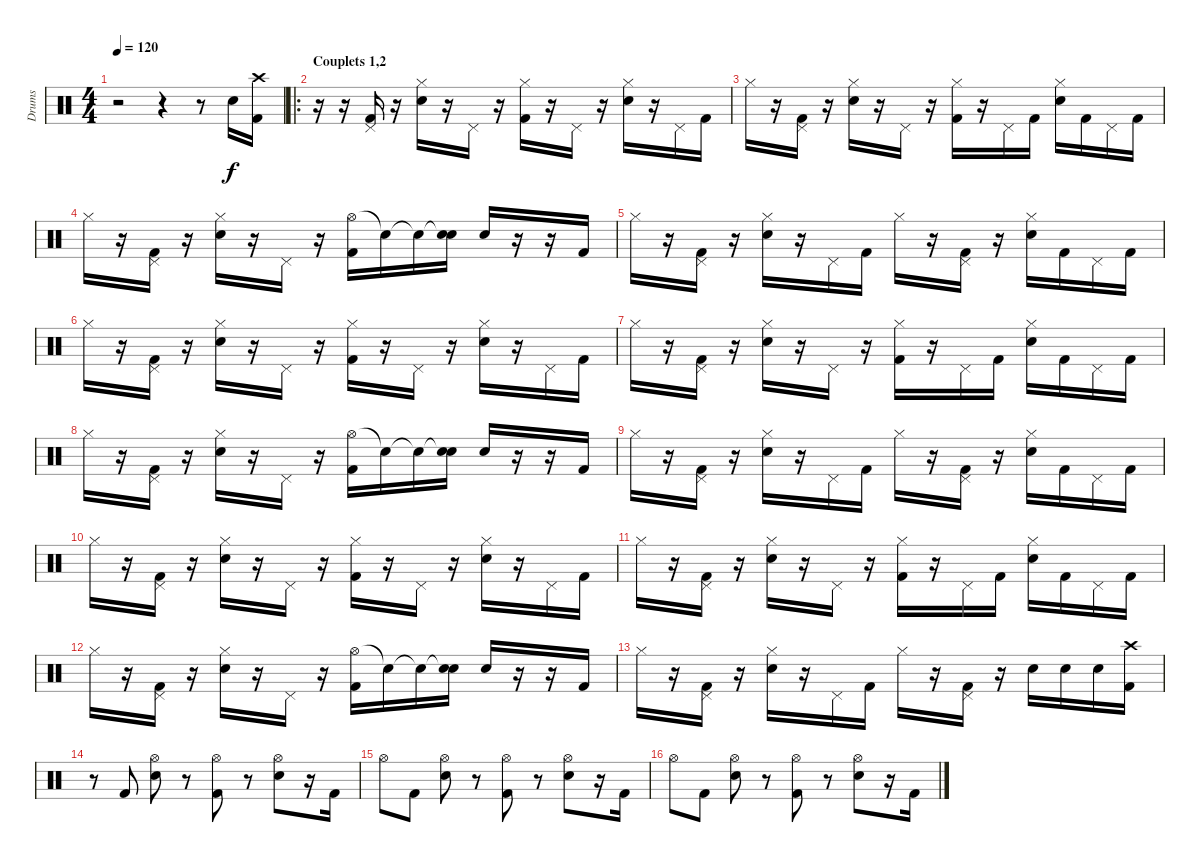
\track ("Drums" "Drums") {instrument percussion}
\staff {score}
\articulation defaults
\ts (4 4)
\tempo 120
\clef neutral
\ks c
r.2{dy f} r.4 r.8 "Electric Snare (hit)".16 ("Crash high (hit)" "Kick (hit) 2").16 |
\ro
\section ("" "Couplets 1,2")
r.16 r.16 ("Pedal Hi-Hat (hit)" "Kick (hit) 2").16 r.16 ("Hi-Hat (closed)" "Electric Snare (hit)").16 r.16 "Pedal Hi-Hat (hit)".16 r.16 ("Hi-Hat (closed)" "Kick (hit) 2").16 r.16 "Pedal Hi-Hat (hit)".16 r.16 ("Hi-Hat (closed)" "Electric Snare (hit)").16 r.16 "Pedal Hi-Hat (hit)".16 "Kick (hit) 2".16 |
"Hi-Hat (closed)".16 r.16 ("Pedal Hi-Hat (hit)" "Kick (hit) 2").16 r.16 ("Hi-Hat (closed)" "Electric Snare (hit)").16 r.16 "Pedal Hi-Hat (hit)".16 r.16 ("Hi-Hat (closed)" "Kick (hit) 2").16 r.16 "Pedal Hi-Hat (hit)".16 "Kick (hit) 2".16 ("Hi-Hat (closed)" "Electric Snare (hit)").16 "Kick (hit) 2".16 "Pedal Hi-Hat (hit)".16 "Kick (hit) 2".16 |
"Hi-Hat (closed)".16 r.16 ("Pedal Hi-Hat (hit)" "Kick (hit) 2").16 r.16 ("Hi-Hat (closed)" "Electric Snare (hit)").16 r.16 "Pedal Hi-Hat (hit)".16 r.16 ("Hi-Hat (open)" "Kick (hit) 2").16 "Snare (hit)"{t}.16 "Snare (hit)"{t}.16 ("Snare (hit)"{t} "Electric Snare (hit)").16 "Electric Snare (hit)".16 r.16 r.16 "Kick (hit) 2".16 |
"Hi-Hat (closed)".16 r.16 ("Pedal Hi-Hat (hit)" "Kick (hit) 2").16 r.16 ("Hi-Hat (closed)" "Electric Snare (hit)").16 r.16 "Pedal Hi-Hat (hit)".16 "Kick (hit) 2".16 "Hi-Hat (closed)".16 r.16 ("Pedal Hi-Hat (hit)" "Kick (hit) 2").16 r.16 ("Hi-Hat (closed)" "Electric Snare (hit)").16 "Kick (hit) 2".16 "Pedal Hi-Hat (hit)".16 "Kick (hit) 2".16 |
"Hi-Hat (closed)".16 r.16 ("Pedal Hi-Hat (hit)" "Kick (hit) 2").16 r.16 ("Hi-Hat (closed)" "Electric Snare (hit)").16 r.16 "Pedal Hi-Hat (hit)".16 r.16 ("Hi-Hat (closed)" "Kick (hit) 2").16 r.16 "Pedal Hi-Hat (hit)".16 r.16 ("Hi-Hat (closed)" "Electric Snare (hit)").16 r.16 "Pedal Hi-Hat (hit)".16 "Kick (hit) 2".16 |
"Hi-Hat (closed)".16 r.16 ("Pedal Hi-Hat (hit)" "Kick (hit) 2").16 r.16 ("Hi-Hat (closed)" "Electric Snare (hit)").16 r.16 "Pedal Hi-Hat (hit)".16 r.16 ("Hi-Hat (closed)" "Kick (hit) 2").16 r.16 "Pedal Hi-Hat (hit)".16 "Kick (hit) 2".16 ("Hi-Hat (closed)" "Electric Snare (hit)").16 "Kick (hit) 2".16 "Pedal Hi-Hat (hit)".16 "Kick (hit) 2".16 |
"Hi-Hat (closed)".16 r.16 ("Pedal Hi-Hat (hit)" "Kick (hit) 2").16 r.16 ("Hi-Hat (closed)" "Electric Snare (hit)").16 r.16 "Pedal Hi-Hat (hit)".16 r.16 ("Hi-Hat (open)" "Kick (hit) 2").16 "Snare (hit)"{t}.16 "Snare (hit)"{t}.16 ("Snare (hit)"{t} "Electric Snare (hit)").16 "Electric Snare (hit)".16 r.16 r.16 "Kick (hit) 2".16 |
"Hi-Hat (closed)".16 r.16 ("Pedal Hi-Hat (hit)" "Kick (hit) 2").16 r.16 ("Hi-Hat (closed)" "Electric Snare (hit)").16 r.16 "Pedal Hi-Hat (hit)".16 "Kick (hit) 2".16 "Hi-Hat (closed)".16 r.16 ("Pedal Hi-Hat (hit)" "Kick (hit) 2").16 r.16 ("Hi-Hat (closed)" "Electric Snare (hit)").16 "Kick (hit) 2".16 "Pedal Hi-Hat (hit)".16 "Kick (hit) 2".16 |
"Hi-Hat (closed)".16 r.16 ("Pedal Hi-Hat (hit)" "Kick (hit) 2").16 r.16 ("Hi-Hat (closed)" "Electric Snare (hit)").16 r.16 "Pedal Hi-Hat (hit)".16 r.16 ("Hi-Hat (closed)" "Kick (hit) 2").16 r.16 "Pedal Hi-Hat (hit)".16 r.16 ("Hi-Hat (closed)" "Electric Snare (hit)").16 r.16 "Pedal Hi-Hat (hit)".16 "Kick (hit) 2".16 |
"Hi-Hat (closed)".16 r.16 ("Pedal Hi-Hat (hit)" "Kick (hit) 2").16 r.16 ("Hi-Hat (closed)" "Electric Snare (hit)").16 r.16 "Pedal Hi-Hat (hit)".16 r.16 ("Hi-Hat (closed)" "Kick (hit) 2").16 r.16 "Pedal Hi-Hat (hit)".16 "Kick (hit) 2".16 ("Hi-Hat (closed)" "Electric Snare (hit)").16 "Kick (hit) 2".16 "Pedal Hi-Hat (hit)".16 "Kick (hit) 2".16 |
"Hi-Hat (closed)".16 r.16 ("Pedal Hi-Hat (hit)" "Kick (hit) 2").16 r.16 ("Hi-Hat (closed)" "Electric Snare (hit)").16 r.16 "Pedal Hi-Hat (hit)".16 r.16 ("Hi-Hat (open)" "Kick (hit) 2").16 "Snare (hit)"{t}.16 "Snare (hit)"{t}.16 ("Snare (hit)"{t} "Electric Snare (hit)").16 "Electric Snare (hit)".16 r.16 r.16 "Kick (hit) 2".16 |
"Hi-Hat (closed)".16 r.16 ("Pedal Hi-Hat (hit)" "Kick (hit) 2").16 r.16 ("Hi-Hat (closed)" "Electric Snare (hit)").16 r.16 "Pedal Hi-Hat (hit)".16 "Kick (hit) 2".16 "Hi-Hat (closed)".16 r.16 ("Pedal Hi-Hat (hit)" "Kick (hit) 2").16 r.16 "Electric Snare (hit)".16 "Electric Snare (hit)".16 "Electric Snare (hit)".16 ("Crash high (hit)" "Kick (hit) 2").16 |
r.8 "Kick (hit) 2".8 ("Hi-Hat (open)" "Electric Snare (hit)").8 r.8 ("Hi-Hat (open)" "Kick (hit) 2").8 r.8 ("Hi-Hat (open)" "Electric Snare (hit)").8 r.16 "Kick (hit) 2".16 |
"Hi-Hat (open)".8 "Kick (hit) 2".8 ("Hi-Hat (open)" "Electric Snare (hit)").8 r.8 ("Hi-Hat (open)" "Kick (hit) 2").8 r.8 ("Hi-Hat (open)" "Electric Snare (hit)").8 r.16 "Kick (hit) 2".16 |
"Hi-Hat (open)".8 "Kick (hit) 2".8 ("Hi-Hat (open)" "Electric Snare (hit)").8 r.8 ("Hi-Hat (open)" "Kick (hit) 2").8 r.8 ("Hi-Hat (open)" "Electric Snare (hit)").8 r.16 "Kick (hit) 2".16
